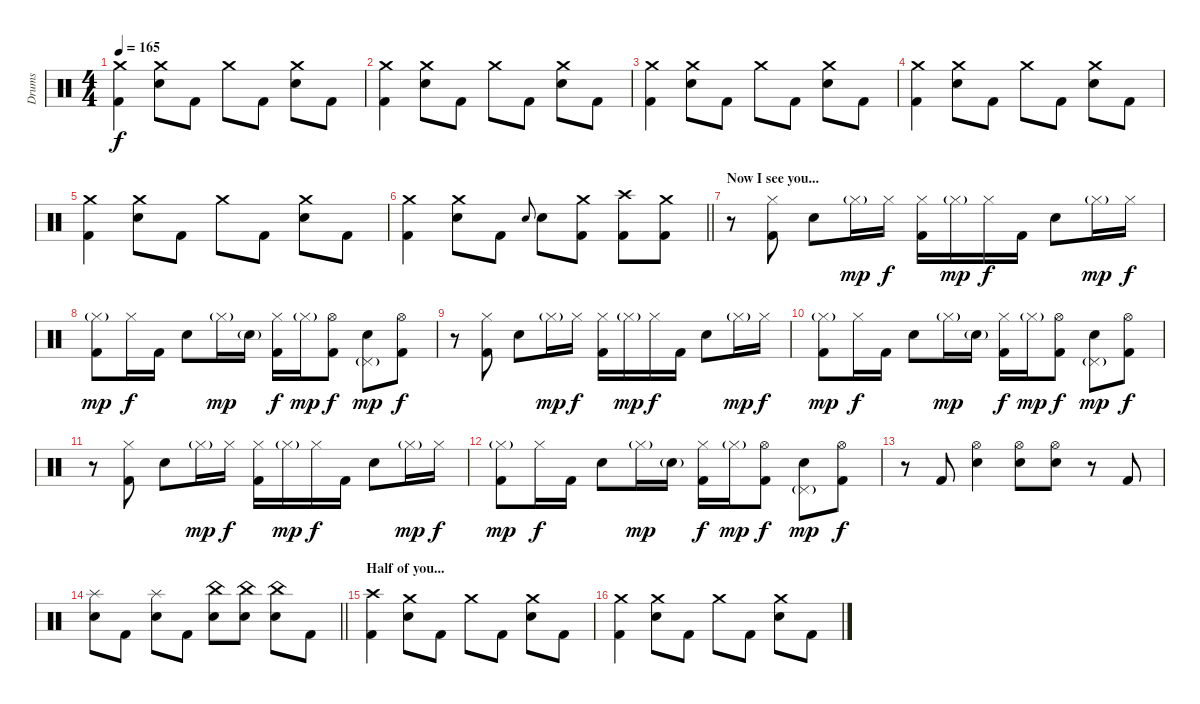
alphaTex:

\track ("Drums" "Drums") {instrument percussion}
\staff {score}
\articulation defaults
\ts (4 4)
\tempo 165
\clef neutral
\ks c
("Crash medium (hit)" "Kick (hit) 2").4{dy f} ("Crash medium (hit)" "Electric Snare (hit)").8 "Kick (hit) 2".8 "Crash medium (hit)".8 "Kick (hit) 2".8 ("Crash medium (hit)" "Electric Snare (hit)").8 "Kick (hit) 2".8 |
("Crash medium (hit)" "Kick (hit) 2").4 ("Crash medium (hit)" "Electric Snare (hit)").8 "Kick (hit) 2".8 "Crash medium (hit)".8 "Kick (hit) 2".8 ("Crash medium (hit)" "Electric Snare (hit)").8 "Kick (hit) 2".8 |
("Crash medium (hit)" "Kick (hit) 2").4 ("Crash medium (hit)" "Electric Snare (hit)").8 "Kick (hit) 2".8 "Crash medium (hit)".8 "Kick (hit) 2".8 ("Crash medium (hit)" "Electric Snare (hit)").8 "Kick (hit) 2".8 |
("Crash medium (hit)" "Kick (hit) 2").4 ("Crash medium (hit)" "Electric Snare (hit)").8 "Kick (hit) 2".8 "Crash medium (hit)".8 "Kick (hit) 2".8 ("Crash medium (hit)" "Electric Snare (hit)").8 "Kick (hit) 2".8 |
("Crash medium (hit)" "Kick (hit) 2").4 ("Crash medium (hit)" "Electric Snare (hit)").8 "Kick (hit) 2".8 "Crash medium (hit)".8 "Kick (hit) 2".8 ("Crash medium (hit)" "Electric Snare (hit)").8 "Kick (hit) 2".8 |
\barLineRight lightlight
("Crash medium (hit)" "Kick (hit) 2").4 ("Crash medium (hit)" "Electric Snare (hit)").8 "Kick (hit) 2".8 "Electric Snare (hit)".8{gr onbeat} "Electric Snare (hit)".8 ("Crash medium (hit)" "Kick (hit) 2").8 ("Crash high (hit)" "Kick (hit) 2").8 ("Crash medium (hit)" "Kick (hit) 2").8 |
\section ("" "Now I see you...")
r.8 ("Hi-Hat (closed)" "Kick (hit) 2").8 "Electric Snare (hit)".8 "Hi-Hat (closed)"{g}.16{dy mp} "Hi-Hat (closed)".16{dy f} ("Hi-Hat (closed)" "Kick (hit) 2").16 "Hi-Hat (closed)"{g}.16{dy mp} "Hi-Hat (closed)".16{dy f} "Kick (hit) 2".16 "Electric Snare (hit)".8 "Hi-Hat (closed)"{g}.16{dy mp} "Hi-Hat (closed)".16{dy f} |
("Hi-Hat (closed)"{g} "Kick (hit) 2").8{dy mp} "Hi-Hat (closed)".16{dy f} "Kick (hit) 2".16 "Electric Snare (hit)".8 "Hi-Hat (closed)"{g}.16{dy mp} "Electric Snare (hit)"{g}.16 ("Hi-Hat (closed)" "Kick (hit) 2").16{dy f} "Hi-Hat (closed)"{g}.16{dy mp} ("Hi-Hat (open)" "Kick (hit) 2").8{dy f} ("Pedal Hi-Hat (hit)"{g} "Electric Snare (hit)").8{dy mp} ("Hi-Hat (open)" "Kick (hit) 2").8{dy f} |
r.8 ("Hi-Hat (closed)" "Kick (hit) 2").8 "Electric Snare (hit)".8 "Hi-Hat (closed)"{g}.16{dy mp} "Hi-Hat (closed)".16{dy f} ("Hi-Hat (closed)" "Kick (hit) 2").16 "Hi-Hat (closed)"{g}.16{dy mp} "Hi-Hat (closed)".16{dy f} "Kick (hit) 2".16 "Electric Snare (hit)".8 "Hi-Hat (closed)"{g}.16{dy mp} "Hi-Hat (closed)".16{dy f} |
("Hi-Hat (closed)"{g} "Kick (hit) 2").8{dy mp} "Hi-Hat (closed)".16{dy f} "Kick (hit) 2".16 "Electric Snare (hit)".8 "Hi-Hat (closed)"{g}.16{dy mp} "Electric Snare (hit)"{g}.16 ("Hi-Hat (closed)" "Kick (hit) 2").16{dy f} "Hi-Hat (closed)"{g}.16{dy mp} ("Hi-Hat (open)" "Kick (hit) 2").8{dy f} ("Pedal Hi-Hat (hit)"{g} "Electric Snare (hit)").8{dy mp} ("Hi-Hat (open)" "Kick (hit) 2").8{dy f} |
r.8 ("Hi-Hat (closed)" "Kick (hit) 2").8 "Electric Snare (hit)".8 "Hi-Hat (closed)"{g}.16{dy mp} "Hi-Hat (closed)".16{dy f} ("Hi-Hat (closed)" "Kick (hit) 2").16 "Hi-Hat (closed)"{g}.16{dy mp} "Hi-Hat (closed)".16{dy f} "Kick (hit) 2".16 "Electric Snare (hit)".8 "Hi-Hat (closed)"{g}.16{dy mp} "Hi-Hat (closed)".16{dy f} |
("Hi-Hat (closed)"{g} "Kick (hit) 2").8{dy mp} "Hi-Hat (closed)".16{dy f} "Kick (hit) 2".16 "Electric Snare (hit)".8 "Hi-Hat (closed)"{g}.16{dy mp} "Electric Snare (hit)"{g}.16 ("Hi-Hat (closed)" "Kick (hit) 2").16{dy f} "Hi-Hat (closed)"{g}.16{dy mp} ("Hi-Hat (open)" "Kick (hit) 2").8{dy f} ("Pedal Hi-Hat (hit)"{g} "Electric Snare (hit)").8{dy mp} ("Hi-Hat (open)" "Kick (hit) 2").8{dy f} |
r.8 "Kick (hit) 2".8 ("Hi-Hat (open)" "Electric Snare (hit)").4 ("Hi-Hat (open)" "Electric Snare (hit)").8 ("Hi-Hat (open)" "Electric Snare (hit)").8 r.8 "Kick (hit) 2".8 |
\barLineRight lightlight
("Splash (hit)" "Electric Snare (hit)").8 "Kick (hit) 2".8 ("Splash (hit)" "Electric Snare (hit)").8 "Kick (hit) 2".8 ("China (hit)" "Electric Snare (hit)").8 ("China (hit)" "Electric Snare (hit)").8 ("China (hit)" "Electric Snare (hit)").8 "Kick (hit) 2".8 |
\section ("" "Half of you...")
("Crash high (hit)" "Kick (hit) 2").4 ("Crash medium (hit)" "Electric Snare (hit)").8 "Kick (hit) 2".8 "Crash medium (hit)".8 "Kick (hit) 2".8 ("Crash medium (hit)" "Electric Snare (hit)").8 "Kick (hit) 2".8 |
("Crash medium (hit)" "Kick (hit) 2").4 ("Crash medium (hit)" "Electric Snare (hit)").8 "Kick (hit) 2".8 "Crash medium (hit)".8 "Kick (hit) 2".8 ("Crash medium (hit)" "Electric Snare (hit)").8 "Kick (hit) 2".8
